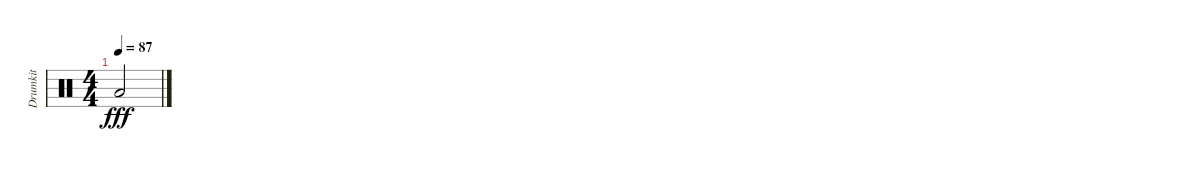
\track ("Drumkit" "Drumkit") {instrument percussion}
\staff {score}
\articulation defaults
\ts (4 4)
\tempo 87
\clef neutral
\ks c "Low Floor Tom (hit)".2{dy fff}
